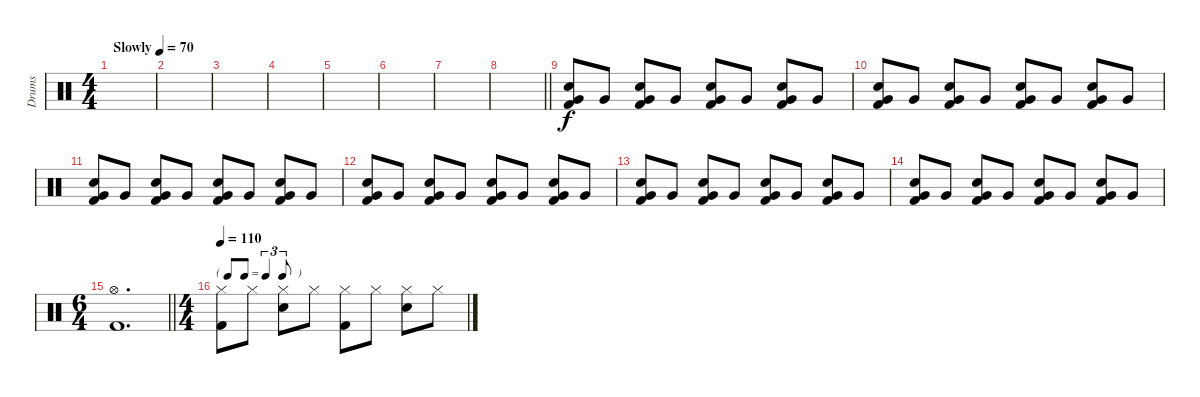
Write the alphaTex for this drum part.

\track ("Drums" "Drums") {instrument percussion}
\staff {score}
\articulation defaults
\ts (4 4)
\tempo (70 "Slowly")
\clef neutral
\ks c
|
|
|
|
|
|
|
\barLineRight lightlight
|
("Snare (hit) 2" "Very Low Tom (hit)" "Kick (hit) 2").8 "Very Low Tom (hit)".8 ("Snare (hit) 2" "Very Low Tom (hit)" "Kick (hit) 2").8 "Very Low Tom (hit)".8 ("Snare (hit) 2" "Very Low Tom (hit)" "Kick (hit) 2").8 "Very Low Tom (hit)".8 ("Snare (hit) 2" "Very Low Tom (hit)" "Kick (hit) 2").8 "Very Low Tom (hit)".8 |
("Snare (hit) 2" "Very Low Tom (hit)" "Kick (hit) 2").8 "Very Low Tom (hit)".8 ("Snare (hit) 2" "Very Low Tom (hit)" "Kick (hit) 2").8 "Very Low Tom (hit)".8 ("Snare (hit) 2" "Very Low Tom (hit)" "Kick (hit) 2").8 "Very Low Tom (hit)".8 ("Snare (hit) 2" "Very Low Tom (hit)" "Kick (hit) 2").8 "Very Low Tom (hit)".8 |
("Snare (hit) 2" "Very Low Tom (hit)" "Kick (hit) 2").8 "Very Low Tom (hit)".8 ("Snare (hit) 2" "Very Low Tom (hit)" "Kick (hit) 2").8 "Very Low Tom (hit)".8 ("Snare (hit) 2" "Very Low Tom (hit)" "Kick (hit) 2").8 "Very Low Tom (hit)".8 ("Snare (hit) 2" "Very Low Tom (hit)" "Kick (hit) 2").8 "Very Low Tom (hit)".8 |
("Snare (hit) 2" "Very Low Tom (hit)" "Kick (hit) 2").8 "Very Low Tom (hit)".8 ("Snare (hit) 2" "Very Low Tom (hit)" "Kick (hit) 2").8 "Very Low Tom (hit)".8 ("Snare (hit) 2" "Very Low Tom (hit)" "Kick (hit) 2").8 "Very Low Tom (hit)".8 ("Snare (hit) 2" "Very Low Tom (hit)" "Kick (hit) 2").8 "Very Low Tom (hit)".8 |
("Snare (hit) 2" "Very Low Tom (hit)" "Kick (hit) 2").8 "Very Low Tom (hit)".8 ("Snare (hit) 2" "Very Low Tom (hit)" "Kick (hit) 2").8 "Very Low Tom (hit)".8 ("Snare (hit) 2" "Very Low Tom (hit)" "Kick (hit) 2").8 "Very Low Tom (hit)".8 ("Snare (hit) 2" "Very Low Tom (hit)" "Kick (hit) 2").8 "Very Low Tom (hit)".8 |
("Snare (hit) 2" "Very Low Tom (hit)" "Kick (hit) 2").8 "Very Low Tom (hit)".8 ("Snare (hit) 2" "Very Low Tom (hit)" "Kick (hit) 2").8 "Very Low Tom (hit)".8 ("Snare (hit) 2" "Very Low Tom (hit)" "Kick (hit) 2").8 "Very Low Tom (hit)".8 ("Snare (hit) 2" "Very Low Tom (hit)" "Kick (hit) 2").8 "Very Low Tom (hit)".8 |
\ts (6 4)
\barLineRight lightlight
("Hi-Hat (open)" "Kick (hit) 2").1{d} |
\ts (4 4)
\tf triplet8th
\tempo 110
("Hi-Hat (closed)" "Kick (hit) 2").8 "Hi-Hat (closed)".8 ("Hi-Hat (closed)" "Snare (hit) 2").8 "Hi-Hat (closed)".8 ("Hi-Hat (closed)" "Kick (hit) 2").8 "Hi-Hat (closed)".8 ("Hi-Hat (closed)" "Snare (hit) 2").8 "Hi-Hat (closed)".8
